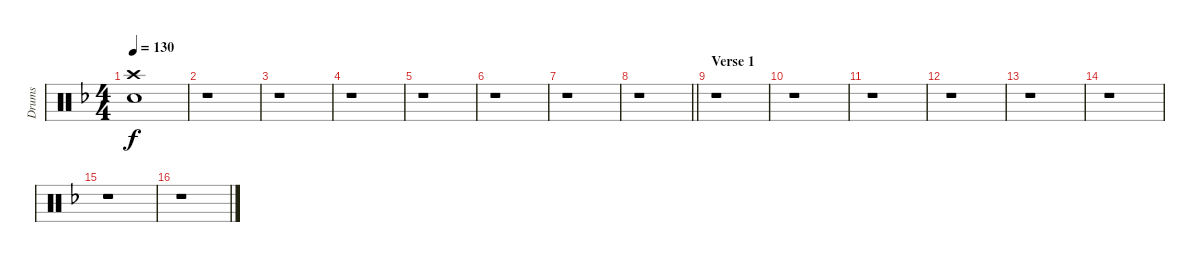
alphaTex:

\track ("Drums" "Drums") {instrument percussion}
\staff {score}
\articulation defaults
\ts (4 4)
\tempo 130
\clef neutral
\ks dminor
("Crash high (hit)" "Snare (hit) 2").1{dy f} |
r.1 |
r.1 |
r.1 |
r.1 |
r.1 |
r.1 |
\barLineRight lightlight
r.1 |
\section ("" "Verse 1")
r.1 |
r.1 |
r.1 |
r.1 |
r.1 |
r.1 |
r.1 |
r.1
